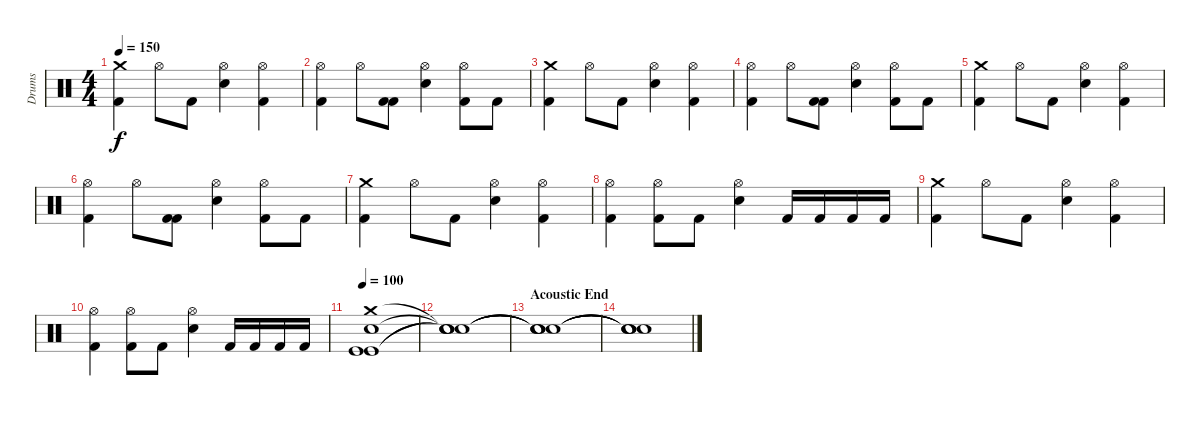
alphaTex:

\track ("Drums" "Drums") {instrument percussion}
\staff {score}
\articulation defaults
\ts (4 4)
\tempo 150
\clef neutral
\ks c
("Crash medium (hit)" "Kick (hit) 2").4{dy f} "Hi-Hat (open)".8 "Kick (hit) 2".8 ("Hi-Hat (open)" "Electric Snare (hit)").4 ("Hi-Hat (open)" "Kick (hit) 2").4 |
("Hi-Hat (open)" "Kick (hit) 2").4 "Hi-Hat (open)".8 ("Kick (hit) 2" "Kick (hit) 2").8 ("Hi-Hat (open)" "Electric Snare (hit)").4 ("Hi-Hat (open)" "Kick (hit) 2").8 "Kick (hit) 2".8 |
("Crash medium (hit)" "Kick (hit) 2").4 "Hi-Hat (open)".8 "Kick (hit) 2".8 ("Hi-Hat (open)" "Electric Snare (hit)").4 ("Hi-Hat (open)" "Kick (hit) 2").4 |
("Hi-Hat (open)" "Kick (hit) 2").4 "Hi-Hat (open)".8 ("Kick (hit) 2" "Kick (hit) 2").8 ("Hi-Hat (open)" "Electric Snare (hit)").4 ("Hi-Hat (open)" "Kick (hit) 2").8 "Kick (hit) 2".8 |
("Crash medium (hit)" "Kick (hit) 2").4 "Hi-Hat (open)".8 "Kick (hit) 2".8 ("Hi-Hat (open)" "Electric Snare (hit)").4 ("Hi-Hat (open)" "Kick (hit) 2").4 |
("Hi-Hat (open)" "Kick (hit) 2").4 "Hi-Hat (open)".8 ("Kick (hit) 2" "Kick (hit) 2").8 ("Hi-Hat (open)" "Electric Snare (hit)").4 ("Hi-Hat (open)" "Kick (hit) 2").8 "Kick (hit) 2".8 |
("Crash medium (hit)" "Kick (hit) 2").4 "Hi-Hat (open)".8 "Kick (hit) 2".8 ("Hi-Hat (open)" "Electric Snare (hit)").4 ("Hi-Hat (open)" "Kick (hit) 2").4 |
("Hi-Hat (open)" "Kick (hit) 2").4 ("Hi-Hat (open)" "Kick (hit) 2").8 "Kick (hit) 2".8 ("Hi-Hat (open)" "Snare (hit) 2").4 "Kick (hit) 2".16 "Kick (hit) 2".16 "Kick (hit) 2".16 "Kick (hit) 2".16 |
("Crash medium (hit)" "Kick (hit) 2").4 "Hi-Hat (open)".8 "Kick (hit) 2".8 ("Hi-Hat (open)" "Electric Snare (hit)").4 ("Hi-Hat (open)" "Kick (hit) 2").4 |
("Hi-Hat (open)" "Kick (hit) 2").4 ("Hi-Hat (open)" "Kick (hit) 2").8 "Kick (hit) 2".8 ("Hi-Hat (open)" "Snare (hit) 2").4 "Kick (hit) 2".16 "Kick (hit) 2".16 "Kick (hit) 2".16 "Kick (hit) 2".16 |
\tempo 100
("Crash medium (hit)" "Kick (hit)" "Kick (hit)" "Snare (hit) 2").1 |
("Snare (hit)"{t} "Snare (hit)"{t} "Snare (hit)"{t} "Snare (hit)"{t}).1 |
\section ("" "Acoustic End")
("Snare (hit)"{t} "Snare (hit)"{t} "Snare (hit)"{t} "Snare (hit)"{t}).1 |
("Snare (hit)"{t} "Snare (hit)"{t} "Snare (hit)"{t} "Snare (hit)"{t}).1
